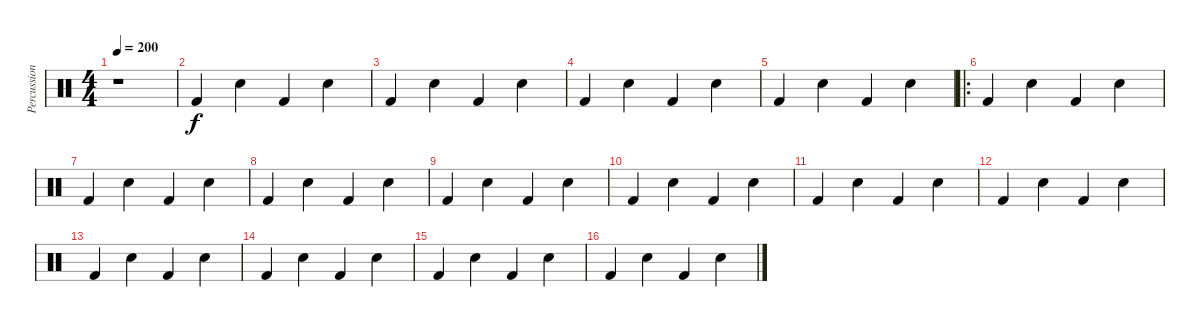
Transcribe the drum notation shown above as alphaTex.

\track ("Percussion" "Percussion") {instrument percussion}
\staff {score}
\articulation defaults
\ts (4 4)
\tempo 200
\clef neutral
\ks c
r.1{dy f} |
"Kick (hit) 2".4 "Electric Snare (hit)".4 "Kick (hit) 2".4 "Electric Snare (hit)".4 |
"Kick (hit) 2".4 "Electric Snare (hit)".4 "Kick (hit) 2".4 "Electric Snare (hit)".4 |
"Kick (hit) 2".4 "Electric Snare (hit)".4 "Kick (hit) 2".4 "Electric Snare (hit)".4 |
"Kick (hit) 2".4 "Electric Snare (hit)".4 "Kick (hit) 2".4 "Electric Snare (hit)".4 |
\ro "Kick (hit) 2".4 "Electric Snare (hit)".4 "Kick (hit) 2".4 "Electric Snare (hit)".4
|
"Kick (hit) 2".4 "Electric Snare (hit)".4 "Kick (hit) 2".4 "Electric Snare (hit)".4 |
"Kick (hit) 2".4 "Electric Snare (hit)".4 "Kick (hit) 2".4 "Electric Snare (hit)".4 |
"Kick (hit) 2".4 "Electric Snare (hit)".4 "Kick (hit) 2".4 "Electric Snare (hit)".4 |
"Kick (hit) 2".4 "Electric Snare (hit)".4 "Kick (hit) 2".4 "Electric Snare (hit)".4 |
"Kick (hit) 2".4 "Electric Snare (hit)".4 "Kick (hit) 2".4 "Electric Snare (hit)".4 |
"Kick (hit) 2".4 "Electric Snare (hit)".4 "Kick (hit) 2".4 "Electric Snare (hit)".4 |
"Kick (hit) 2".4 "Electric Snare (hit)".4 "Kick (hit) 2".4 "Electric Snare (hit)".4 |
"Kick (hit) 2".4 "Electric Snare (hit)".4 "Kick (hit) 2".4 "Electric Snare (hit)".4 |
"Kick (hit) 2".4 "Electric Snare (hit)".4 "Kick (hit) 2".4 "Electric Snare (hit)".4 |
"Kick (hit) 2".4 "Electric Snare (hit)".4 "Kick (hit) 2".4 "Electric Snare (hit)".4
